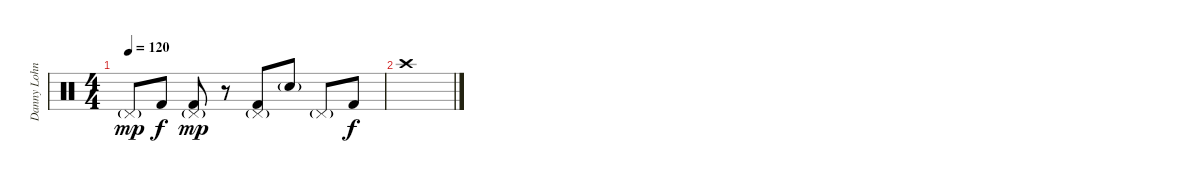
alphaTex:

\track ("Danny Lohner" "Danny Lohn") {instrument percussion}
\staff {score}
\articulation defaults
\ts (4 4)
\tempo 120
\clef neutral
\ks c "Pedal Hi-Hat (hit)"{g}.8{dy mp} "Kick (hit) 2".8{dy f}
("Pedal Hi-Hat (hit)"{g} "Kick (hit) 2").8{dy mp} r.8 ("Pedal Hi-Hat (hit)"{g} "Kick (hit) 2").8 "Electric Snare (hit)"{g}.8 "Pedal Hi-Hat (hit)"{g}.8 "Kick (hit) 2".8{dy f} |
"Crash high (hit)".1
